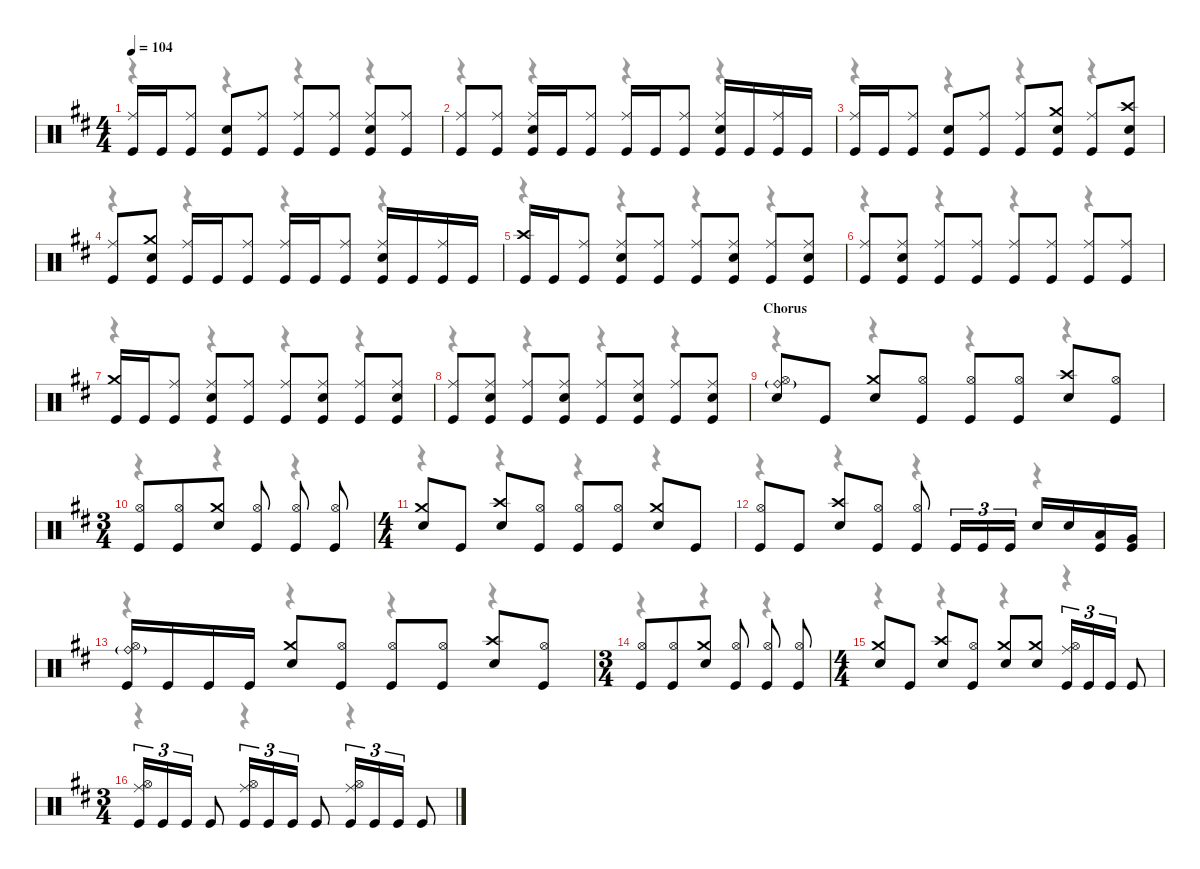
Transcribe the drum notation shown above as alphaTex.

\defaultSystemsLayout 4
\hideDynamics
\bracketExtendMode nobrackets
\singleTrackTrackNamePolicy hidden
\multiTrackTrackNamePolicy hidden
\firstSystemTrackNameMode fullname
\otherSystemsTrackNameOrientation horizontal
\track ("Drums" "drm.") {instrument percussion}
\staff {score}
\articulation defaults
\voice
\ts (4 4)
\tempo 104
\clef neutral
\ks bminor
("Kick (hit)"{acc forcenatural} "Ride (middle)"{acc forcenatural}).16{dy f beam Up} "Kick (hit)"{acc forcenatural}.16{beam Up} ("Kick (hit)"{acc forcenatural} "Ride (middle)"{acc forcenatural}).8{beam Up} ("Kick (hit)"{acc forcenatural} "Snare (hit) 2"{acc forcenatural}).8{beam Up} ("Kick (hit)"{acc forcenatural} "Ride (middle)"{acc forcenatural}).8{beam Up} ("Kick (hit)"{acc forcenatural} "Ride (middle)"{acc forcenatural}).8{beam Up} ("Kick (hit)"{acc forcenatural} "Ride (middle)"{acc forcenatural}).8{beam Up} ("Kick (hit)"{acc forcenatural} "Ride (middle)"{acc forcenatural} "Snare (hit) 2"{acc forcenatural}).8{beam Up} ("Kick (hit)"{acc forcenatural} "Ride (middle)"{acc forcenatural}).8{beam Up} |
("Ride (middle)"{acc forcenatural} "Kick (hit)"{acc forcenatural}).8{beam Up} ("Ride (middle)"{acc forcenatural} "Kick (hit)"{acc forcenatural}).8{beam Up} ("Ride (middle)"{acc forcenatural} "Snare (hit) 2"{acc forcenatural} "Kick (hit)"{acc forcenatural}).16{beam Up} "Kick (hit)"{acc forcenatural}.16{beam Up} ("Ride (middle)"{acc forcenatural} "Kick (hit)"{acc forcenatural}).8{beam Up} ("Ride (middle)"{acc forcenatural} "Kick (hit)"{acc forcenatural}).16{beam Up} "Kick (hit)"{acc forcenatural}.16{beam Up} ("Ride (middle)"{acc forcenatural} "Kick (hit)"{acc forcenatural}).8{beam Up} ("Snare (hit) 2"{acc forcenatural} "Kick (hit)"{acc forcenatural} "Ride (middle)"{acc forcenatural}).16{beam Up} "Kick (hit)"{acc forcenatural}.16{beam Up} ("Kick (hit)"{acc forcenatural} "Ride (middle)"{acc forcenatural}).16{beam Up} "Kick (hit)"{acc forcenatural}.16{beam Up} |
("Kick (hit)"{acc forcenatural} "Ride (middle)"{acc forcenatural}).16{beam Up} "Kick (hit)"{acc forcenatural}.16{beam Up} ("Kick (hit)"{acc forcenatural} "Ride (middle)"{acc forcenatural}).8{beam Up} ("Kick (hit)"{acc forcenatural} "Snare (hit) 2"{acc forcenatural}).8{beam Up} ("Kick (hit)"{acc forcenatural} "Ride (middle)"{acc forcenatural}).8{beam Up} ("Kick (hit)"{acc forcenatural} "Ride (middle)"{acc forcenatural}).8{beam Up} ("Kick (hit)"{acc forcenatural} "Snare (hit) 2"{acc forcenatural} "Crash medium (hit)"{acc forcenatural}).8{beam Up} ("Kick (hit)"{acc forcenatural} "Ride (middle)"{acc forcenatural}).8{beam Up} ("Kick (hit)"{acc forcenatural} "Snare (hit) 2"{acc forcenatural} "Crash high (hit)"{acc forcenatural}).8{beam Up} |
("Ride (middle)"{acc forcenatural} "Kick (hit)"{acc forcenatural}).8{beam Up} ("Kick (hit)"{acc forcenatural} "Snare (hit) 2"{acc forcenatural} "Crash medium (hit)"{acc forcenatural}).8{beam Up} ("Ride (middle)"{acc forcenatural} "Kick (hit)"{acc forcenatural}).16{beam Up} "Kick (hit)"{acc forcenatural}.16{beam Up} ("Ride (middle)"{acc forcenatural} "Kick (hit)"{acc forcenatural}).8{beam Up} ("Ride (middle)"{acc forcenatural} "Kick (hit)"{acc forcenatural}).16{beam Up} "Kick (hit)"{acc forcenatural}.16{beam Up} ("Ride (middle)"{acc forcenatural} "Kick (hit)"{acc forcenatural}).8{beam Up} ("Snare (hit) 2"{acc forcenatural} "Kick (hit)"{acc forcenatural} "Ride (middle)"{acc forcenatural}).16{beam Up} "Kick (hit)"{acc forcenatural}.16{beam Up} ("Kick (hit)"{acc forcenatural} "Ride (middle)"{acc forcenatural}).16{beam Up} "Kick (hit)"{acc forcenatural}.16{beam Up} |
("Kick (hit)"{acc forcenatural} "Crash high (hit)"{acc forcenatural}).16{beam Up} "Kick (hit)"{acc forcenatural}.16{beam Up} ("Kick (hit)"{acc forcenatural} "Ride (middle)"{acc forcenatural}).8{beam Up} ("Kick (hit)"{acc forcenatural} "Snare (hit) 2"{acc forcenatural} "Ride (middle)"{acc forcenatural}).8{beam Up} ("Kick (hit)"{acc forcenatural} "Ride (middle)"{acc forcenatural}).8{beam Up} ("Kick (hit)"{acc forcenatural} "Ride (middle)"{acc forcenatural}).8{beam Up} ("Kick (hit)"{acc forcenatural} "Snare (hit) 2"{acc forcenatural} "Ride (middle)"{acc forcenatural}).8{beam Up} ("Kick (hit)"{acc forcenatural} "Ride (middle)"{acc forcenatural}).8{beam Up} ("Kick (hit)"{acc forcenatural} "Snare (hit) 2"{acc forcenatural} "Ride (middle)"{acc forcenatural}).8{beam Up} |
("Kick (hit)"{acc forcenatural} "Ride (middle)"{acc forcenatural}).8{beam Up} ("Kick (hit)"{acc forcenatural} "Snare (hit) 2"{acc forcenatural} "Ride (middle)"{acc forcenatural}).8{beam Up} ("Kick (hit)"{acc forcenatural} "Ride (middle)"{acc forcenatural}).8{beam Up} ("Kick (hit)"{acc forcenatural} "Ride (middle)"{acc forcenatural}).8{beam Up} ("Kick (hit)"{acc forcenatural} "Ride (middle)"{acc forcenatural}).8{beam Up} ("Kick (hit)"{acc forcenatural} "Ride (middle)"{acc forcenatural}).8{beam Up} ("Kick (hit)"{acc forcenatural} "Ride (middle)"{acc forcenatural}).8{beam Up} ("Kick (hit)"{acc forcenatural} "Ride (middle)"{acc forcenatural}).8{beam Up} |
("Kick (hit)"{acc forcenatural} "Crash medium (hit)"{acc forcenatural}).16{beam Up} "Kick (hit)"{acc forcenatural}.16{beam Up} ("Kick (hit)"{acc forcenatural} "Ride (middle)"{acc forcenatural}).8{beam Up} ("Kick (hit)"{acc forcenatural} "Snare (hit) 2"{acc forcenatural} "Ride (middle)"{acc forcenatural}).8{beam Up} ("Kick (hit)"{acc forcenatural} "Ride (middle)"{acc forcenatural}).8{beam Up} ("Kick (hit)"{acc forcenatural} "Ride (middle)"{acc forcenatural}).8{beam Up} ("Kick (hit)"{acc forcenatural} "Snare (hit) 2"{acc forcenatural} "Ride (middle)"{acc forcenatural}).8{beam Up} ("Kick (hit)"{acc forcenatural} "Ride (middle)"{acc forcenatural}).8{beam Up} ("Kick (hit)"{acc forcenatural} "Snare (hit) 2"{acc forcenatural} "Ride (middle)"{acc forcenatural}).8{beam Up} |
("Kick (hit)"{acc forcenatural} "Ride (middle)"{acc forcenatural}).8{beam Up} ("Kick (hit)"{acc forcenatural} "Snare (hit) 2"{acc forcenatural} "Ride (middle)"{acc forcenatural}).8{beam Up} ("Kick (hit)"{acc forcenatural} "Ride (middle)"{acc forcenatural}).8{beam Up} ("Kick (hit)"{acc forcenatural} "Ride (middle)"{acc forcenatural} "Snare (hit) 2"{acc forcenatural}).8{beam Up} ("Kick (hit)"{acc forcenatural} "Ride (middle)"{acc forcenatural}).8{beam Up} ("Kick (hit)"{acc forcenatural} "Ride (middle)"{acc forcenatural} "Snare (hit) 2"{acc forcenatural}).8{beam Up} ("Kick (hit)"{acc forcenatural} "Ride (middle)"{acc forcenatural}).8{beam Up} ("Kick (hit)"{acc forcenatural} "Ride (middle)"{acc forcenatural} "Snare (hit) 2"{acc forcenatural}).8{beam Up} |
\section ("" "Chorus")
("Ride (bell)"{g acc forcenatural} "Hi-Hat (open)"{acc forcenatural} "Snare (hit) 2"{acc forcenatural}).8{dy mp beam Up} "Kick (hit)"{acc forcenatural}.8{dy f beam Up} ("Crash medium (hit)"{acc forcenatural} "Snare (hit) 2"{acc forcenatural}).8{dy mp beam Up} ("Hi-Hat (open)"{acc forcenatural} "Kick (hit)"{acc forcenatural}).8{dy pp beam Up} ("Hi-Hat (open)"{acc forcenatural} "Kick (hit)"{acc forcenatural}).8{dy mp beam Up} ("Hi-Hat (open)"{acc forcenatural} "Kick (hit)"{acc forcenatural}).8{dy pp beam Up} ("Crash high (hit)"{acc forcenatural} "Snare (hit) 2"{acc forcenatural}).8{dy mp beam Up} ("Hi-Hat (open)"{acc forcenatural} "Kick (hit)"{acc forcenatural}).8{dy pp beam Up} |
\ts (3 4)
\beaming (8 3 1 1 1)
("Hi-Hat (open)"{acc forcenatural} "Kick (hit)"{acc forcenatural}).8{dy mp beam Up} ("Hi-Hat (open)"{acc forcenatural} "Kick (hit)"{acc forcenatural}).8{dy pp beam Up} ("Crash medium (hit)"{acc forcenatural} "Snare (hit) 2"{acc forcenatural}).8{dy mp beam Up} ("Hi-Hat (open)"{acc forcenatural} "Kick (hit)"{acc forcenatural}).8{dy pp beam Up} ("Hi-Hat (open)"{acc forcenatural} "Kick (hit)"{acc forcenatural}).8{dy mp beam Up} ("Hi-Hat (open)"{acc forcenatural} "Kick (hit)"{acc forcenatural}).8{dy pp beam Up} |
\ts (4 4)
\beaming (8 2 2 2 2)
("Crash medium (hit)"{acc forcenatural} "Snare (hit) 2"{acc forcenatural}).8{dy mp beam Up} "Kick (hit)"{acc forcenatural}.8{dy f beam Up} ("Crash high (hit)"{acc forcenatural} "Snare (hit) 2"{acc forcenatural}).8{dy mp beam Up} ("Hi-Hat (open)"{acc forcenatural} "Kick (hit)"{acc forcenatural}).8{dy pp beam Up} ("Hi-Hat (open)"{acc forcenatural} "Kick (hit)"{acc forcenatural}).8{dy mp beam Up} ("Hi-Hat (open)"{acc forcenatural} "Kick (hit)"{acc forcenatural}).8{dy pp beam Up} ("Crash medium (hit)"{acc forcenatural} "Snare (hit) 2"{acc forcenatural}).8{dy mp beam Up} "Kick (hit)"{acc forcenatural}.8{dy f beam Up} |
("Hi-Hat (open)"{acc forcenatural} "Kick (hit)"{acc forcenatural}).8{dy mp beam Up} "Kick (hit)"{acc forcenatural}.8{dy f beam Up} ("Crash high (hit)"{acc forcenatural} "Snare (hit) 2"{acc forcenatural}).8{dy mp beam Up} ("Hi-Hat (open)"{acc forcenatural} "Kick (hit)"{acc forcenatural}).8{dy pp beam Up} ("Hi-Hat (open)"{acc forcenatural} "Kick (hit)"{acc forcenatural}).8{dy mp beam Up} "Kick (hit)"{acc forcenatural}.16{tu (3 2) dy f beam Up} "Kick (hit)"{acc forcenatural}.16{tu (3 2) beam Up} "Kick (hit)"{acc forcenatural}.16{tu (3 2) beam Up} "Snare (hit) 2"{acc forcenatural}.16{beam Up} "Snare (hit) 2"{acc forcenatural}.16{beam Up} ("Low Tom (hit)"{acc forcenatural} "Kick (hit)"{acc forcenatural}).16{dy mp beam Up} ("Very Low Tom (hit)"{acc forcenatural} "Kick (hit)"{acc forcenatural}).16{beam Up} |
("Ride (bell)"{g acc forcenatural} "Hi-Hat (open)"{acc forcenatural} "Kick (hit)"{acc forcenatural}).16{beam Up} "Kick (hit)"{acc forcenatural}.16{dy f beam Up} "Kick (hit)"{acc forcenatural}.16{beam Up} "Kick (hit)"{acc forcenatural}.16{beam Up} ("Crash medium (hit)"{acc forcenatural} "Snare (hit) 2"{acc forcenatural}).8{dy mp beam Up} ("Hi-Hat (open)"{acc forcenatural} "Kick (hit)"{acc forcenatural}).8{dy pp beam Up} ("Hi-Hat (open)"{acc forcenatural} "Kick (hit)"{acc forcenatural}).8{dy mp beam Up} ("Hi-Hat (open)"{acc forcenatural} "Kick (hit)"{acc forcenatural}).8{dy pp beam Up} ("Crash high (hit)"{acc forcenatural} "Snare (hit) 2"{acc forcenatural}).8{dy mp beam Up} ("Hi-Hat (open)"{acc forcenatural} "Kick (hit)"{acc forcenatural}).8{dy pp beam Up} |
\ts (3 4)
\beaming (8 3 1 1 1)
("Hi-Hat (open)"{acc forcenatural} "Kick (hit)"{acc forcenatural}).8{dy mp beam Up} ("Hi-Hat (open)"{acc forcenatural} "Kick (hit)"{acc forcenatural}).8{dy pp beam Up} ("Crash medium (hit)"{acc forcenatural} "Snare (hit) 2"{acc forcenatural}).8{dy mp beam Up} ("Hi-Hat (open)"{acc forcenatural} "Kick (hit)"{acc forcenatural}).8{dy pp beam Up} ("Hi-Hat (open)"{acc forcenatural} "Kick (hit)"{acc forcenatural}).8{dy mp beam Up} ("Hi-Hat (open)"{acc forcenatural} "Kick (hit)"{acc forcenatural}).8{dy pp beam Up} |
\ts (4 4)
\beaming (8 2 2 2 2)
("Crash medium (hit)"{acc forcenatural} "Snare (hit) 2"{acc forcenatural}).8{dy mp beam Up} "Kick (hit)"{acc forcenatural}.8{dy f beam Up} ("Crash high (hit)"{acc forcenatural} "Snare (hit) 2"{acc forcenatural}).8{dy mp beam Up} ("Hi-Hat (open)"{acc forcenatural} "Kick (hit)"{acc forcenatural}).8{dy pp beam Up} ("Crash medium (hit)"{acc forcenatural} "Snare (hit) 2"{acc forcenatural}).8{dy mp beam Up} ("Crash medium (hit)"{acc forcenatural} "Snare (hit) 2"{acc forcenatural}).8{beam Up} ("Ride (middle)"{acc forcenatural} "Hi-Hat (open)"{acc forcenatural} "Kick (hit)"{acc forcenatural}).16{tu (3 2) dy mf beam Up} "Kick (hit)"{acc forcenatural}.16{tu (3 2) dy f beam Up} "Kick (hit)"{acc forcenatural}.16{tu (3 2) beam Up} "Kick (hit)"{acc forcenatural}.8{beam Up} |
\ts (3 4)
\beaming (8 3 1 1 1)
("Ride (middle)"{acc forcenatural} "Hi-Hat (open)"{acc forcenatural} "Kick (hit)"{acc forcenatural}).16{tu (3 2) dy mf beam Up} "Kick (hit)"{acc forcenatural}.16{tu (3 2) dy f beam Up} "Kick (hit)"{acc forcenatural}.16{tu (3 2) beam Up} "Kick (hit)"{acc forcenatural}.8{beam Up} ("Ride (middle)"{acc forcenatural} "Hi-Hat (open)"{acc forcenatural} "Kick (hit)"{acc forcenatural}).16{tu (3 2) dy mf beam Up} "Kick (hit)"{acc forcenatural}.16{tu (3 2) dy f beam Up} "Kick (hit)"{acc forcenatural}.16{tu (3 2) beam Up} "Kick (hit)"{acc forcenatural}.8{beam Up} ("Ride (middle)"{acc forcenatural} "Hi-Hat (open)"{acc forcenatural} "Kick (hit)"{acc forcenatural}).16{tu (3 2) dy mf beam Up} "Kick (hit)"{acc forcenatural}.16{tu (3 2) dy f beam Up} "Kick (hit)"{acc forcenatural}.16{tu (3 2) beam Up} "Kick (hit)"{acc forcenatural}.8{beam Up}
\voice
\clef neutral
\ottava regular
\simile none
\ks bminor
r.4{dy mf beam Down} r.4{beam Down} r.4{beam Down} r.4{beam Down} |
r.4{beam Down} r.4{beam Down} r.4{beam Down} r.4{beam Down} |
r.4{beam Down} r.4{beam Down} r.4{beam Down} r.4{beam Down} |
r.4{beam Down} r.4{beam Down} r.4{beam Down} r.4{beam Down} |
r.4{beam Down} r.4{beam Down} r.4{beam Down} r.4{beam Down} |
r.4{beam Down} r.4{beam Down} r.4{beam Down} r.4{beam Down} |
r.4{beam Down} r.4{beam Down} r.4{beam Down} r.4{beam Down} |
r.4{beam Down} r.4{beam Down} r.4{beam Down} r.4{beam Down} |
r.4{beam Down} r.4{beam Down} r.4{beam Down} r.4{beam Down} |
r.4{beam Down} r.4{beam Down} r.4{beam Down} |
r.4{beam Down} r.4{beam Down} r.4{beam Down} r.4{beam Down} |
r.4{beam Down} r.4{beam Down} r.4{beam Down} r.4{beam Down} |
r.4{beam Down} r.4{beam Down} r.4{beam Down} r.4{beam Down} |
r.4{beam Down} r.4{beam Down} r.4{beam Down} |
r.4{beam Down} r.4{beam Down} r.4{beam Down} r.4{beam Down} |
r.4{beam Down} r.4{beam Down} r.4{beam Down}
